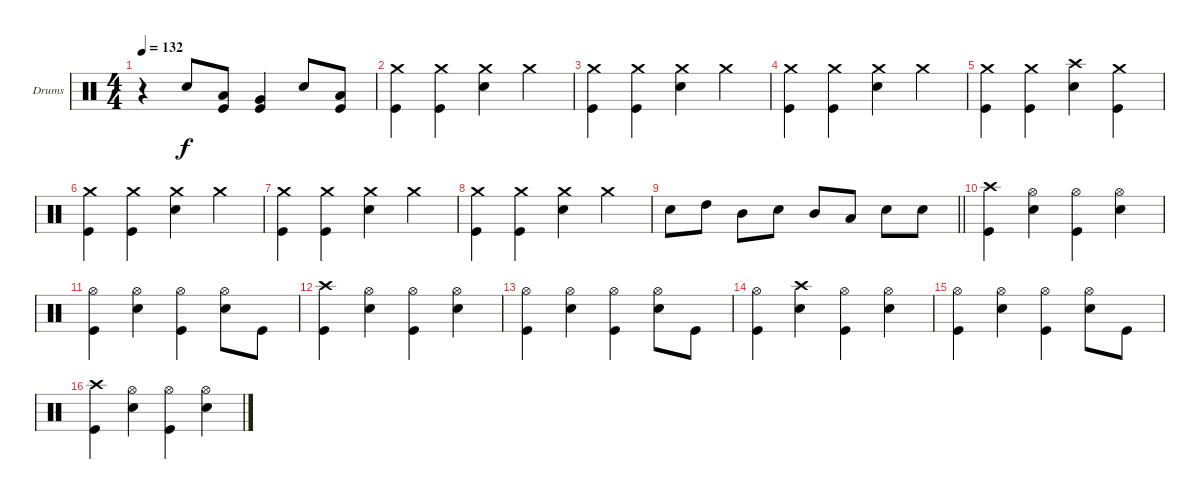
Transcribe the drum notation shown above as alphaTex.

\bracketExtendMode groupsimilarinstruments
\firstSystemTrackNameOrientation horizontal
\otherSystemsTrackNameOrientation horizontal
\track ("Drumkit" "Drums") {instrument percussion}
\staff {score}
\articulation defaults
\ts (4 4)
\tempo 132
\clef neutral
\ks c
r.4{dy f} "Snare (hit) 2".8 ("Low Tom (hit)" "Kick (hit)").8 ("Very Low Tom (hit)" "Kick (hit)").4 "Snare (hit) 2".8 ("Low Tom (hit)" "Kick (hit)").8 |
("Crash medium (hit)" "Kick (hit)").4 ("Crash medium (hit)" "Kick (hit)").4 ("Crash medium (hit)" "Snare (hit) 2").4 "Crash medium (hit)".4 |
("Crash medium (hit)" "Kick (hit)").4 ("Crash medium (hit)" "Kick (hit)").4 ("Crash medium (hit)" "Snare (hit) 2").4 "Crash medium (hit)".4 |
("Crash medium (hit)" "Kick (hit)").4 ("Crash medium (hit)" "Kick (hit)").4 ("Crash medium (hit)" "Snare (hit) 2").4 "Crash medium (hit)".4 |
("Crash medium (hit)" "Kick (hit)").4 ("Crash medium (hit)" "Kick (hit)").4 ("Crash high (hit)" "Snare (hit) 2").4 ("Crash medium (hit)" "Kick (hit)").4 |
("Crash medium (hit)" "Kick (hit)").4 ("Crash medium (hit)" "Kick (hit)").4 ("Crash medium (hit)" "Snare (hit) 2").4 "Crash medium (hit)".4 |
("Crash medium (hit)" "Kick (hit)").4 ("Crash medium (hit)" "Kick (hit)").4 ("Crash medium (hit)" "Snare (hit) 2").4 "Crash medium (hit)".4 |
("Crash medium (hit)" "Kick (hit)").4 ("Crash medium (hit)" "Kick (hit)").4 ("Crash medium (hit)" "Snare (hit) 2").4 "Crash medium (hit)".4 |
\barLineRight lightlight "Snare (hit) 2".8 "High Tom (hit)".8 "Mid Tom (hit)".8 "Snare (hit) 2".8 "Mid Tom (hit)".8 "Low Tom (hit)".8 "Snare (hit) 2".8 "Snare (hit) 2".8
|
("Crash high (hit)" "Kick (hit)").4 ("Hi-Hat (open)" "Snare (hit) 2").4 ("Hi-Hat (open)" "Kick (hit)").4 ("Hi-Hat (open)" "Snare (hit) 2").4 |
("Hi-Hat (open)" "Kick (hit)").4 ("Hi-Hat (open)" "Snare (hit) 2").4 ("Hi-Hat (open)" "Kick (hit)").4 ("Hi-Hat (open)" "Snare (hit) 2").8 "Kick (hit)".8 |
("Crash high (hit)" "Kick (hit)").4 ("Hi-Hat (open)" "Snare (hit) 2").4 ("Hi-Hat (open)" "Kick (hit)").4 ("Hi-Hat (open)" "Snare (hit) 2").4 |
("Hi-Hat (open)" "Kick (hit)").4 ("Hi-Hat (open)" "Snare (hit) 2").4 ("Hi-Hat (open)" "Kick (hit)").4 ("Hi-Hat (open)" "Snare (hit) 2").8 "Kick (hit)".8 |
("Hi-Hat (open)" "Kick (hit)").4 ("Crash high (hit)" "Snare (hit) 2").4 ("Hi-Hat (open)" "Kick (hit)").4 ("Hi-Hat (open)" "Snare (hit) 2").4 |
("Hi-Hat (open)" "Kick (hit)").4 ("Hi-Hat (open)" "Snare (hit) 2").4 ("Hi-Hat (open)" "Kick (hit)").4 ("Hi-Hat (open)" "Snare (hit) 2").8 "Kick (hit)".8 |
("Crash high (hit)" "Kick (hit)").4 ("Hi-Hat (open)" "Snare (hit) 2").4 ("Hi-Hat (open)" "Kick (hit)").4 ("Hi-Hat (open)" "Snare (hit) 2").4
